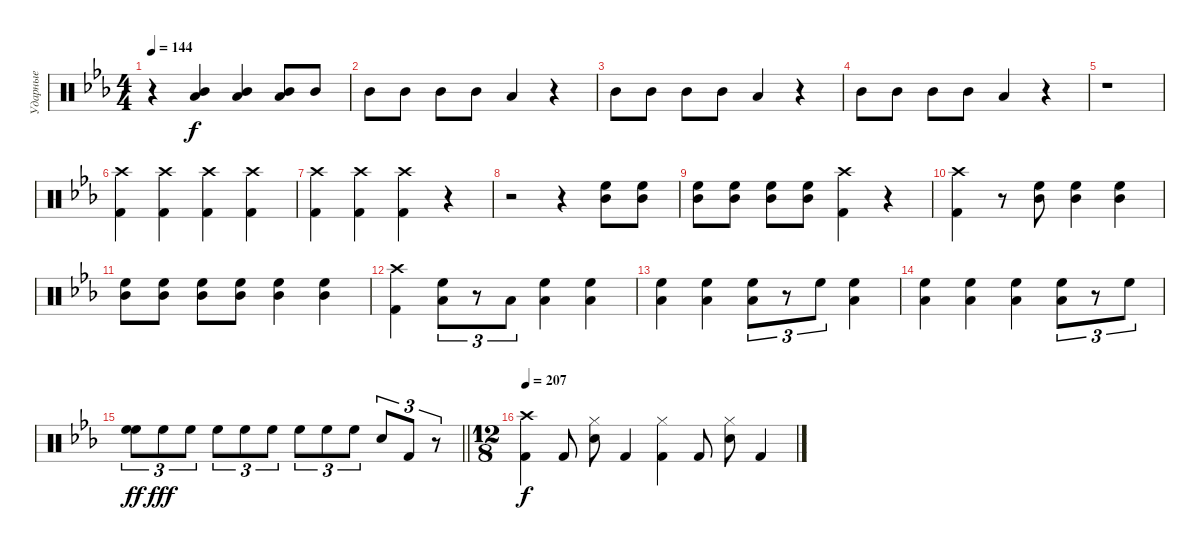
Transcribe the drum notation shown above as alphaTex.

\track ("Ударные" "Ударные") {instrument percussion}
\staff {score}
\articulation defaults
\ts (4 4)
\tempo 144
\clef neutral
\ks eb
r.4{dy f} ("Mid Tom (hit)" "Low Tom (hit)").4 ("Mid Tom (hit)" "Low Tom (hit)").4 ("Mid Tom (hit)" "Low Tom (hit)").8 "Mid Tom (hit)".8 |
"Mid Tom (hit)".8 "Mid Tom (hit)".8 "Mid Tom (hit)".8 "Mid Tom (hit)".8 "Low Tom (hit)".4 r.4 |
"Mid Tom (hit)".8 "Mid Tom (hit)".8 "Mid Tom (hit)".8 "Mid Tom (hit)".8 "Low Tom (hit)".4 r.4 |
"Mid Tom (hit)".8 "Mid Tom (hit)".8 "Mid Tom (hit)".8 "Mid Tom (hit)".8 "Low Tom (hit)".4 r.4 |
r.1 |
("Crash high (hit)" "Kick (hit) 2").4 ("Crash high (hit)" "Kick (hit) 2").4 ("Crash high (hit)" "Kick (hit) 2").4 ("Crash high (hit)" "Kick (hit) 2").4 |
("Crash high (hit)" "Kick (hit) 2").4 ("Crash high (hit)" "Kick (hit) 2").4 ("Crash high (hit)" "Kick (hit) 2").4 r.4 |
r.2 r.4 ("High Floor Tom (hit)" "Mid Tom (hit)").8 ("High Floor Tom (hit)" "Mid Tom (hit)").8 |
("High Floor Tom (hit)" "Mid Tom (hit)").8 ("High Floor Tom (hit)" "Mid Tom (hit)").8 ("High Floor Tom (hit)" "Mid Tom (hit)").8 ("High Floor Tom (hit)" "Mid Tom (hit)").8 ("Crash high (hit)" "Kick (hit) 2").4 r.4 |
("Crash high (hit)" "Kick (hit) 2").4 r.8 ("High Floor Tom (hit)" "Mid Tom (hit)").8 ("High Floor Tom (hit)" "Mid Tom (hit)").4 ("High Floor Tom (hit)" "Mid Tom (hit)").4 |
("High Floor Tom (hit)" "Mid Tom (hit)").8 ("High Floor Tom (hit)" "Mid Tom (hit)").8 ("High Floor Tom (hit)" "Mid Tom (hit)").8 ("High Floor Tom (hit)" "Mid Tom (hit)").8 ("High Floor Tom (hit)" "Mid Tom (hit)").4 ("High Floor Tom (hit)" "Mid Tom (hit)").4 |
("Crash high (hit)" "Kick (hit) 2").4 ("High Floor Tom (hit)" "Low Tom (hit)").8{tu (3 2)} r.8{tu (3 2)} "Low Tom (hit)".8{tu (3 2)} ("High Floor Tom (hit)" "Low Tom (hit)").4 ("High Floor Tom (hit)" "Low Tom (hit)").4 |
("High Floor Tom (hit)" "Low Tom (hit)").4 ("High Floor Tom (hit)" "Low Tom (hit)").4 ("High Floor Tom (hit)" "Low Tom (hit)").8{tu (3 2)} r.8{tu (3 2)} "High Floor Tom (hit)".8{tu (3 2)} ("High Floor Tom (hit)" "Low Tom (hit)").4 |
("High Floor Tom (hit)" "Low Tom (hit)").4 ("High Floor Tom (hit)" "Low Tom (hit)").4 ("High Floor Tom (hit)" "Low Tom (hit)").4 ("High Floor Tom (hit)" "Low Tom (hit)").8{tu (3 2)} r.8{tu (3 2)} "High Floor Tom (hit)".8{tu (3 2)} |
\barLineRight lightlight
("High Floor Tom (hit)" "High Floor Tom (hit)").8{tu (3 2) dy ff} "High Floor Tom (hit)".8{tu (3 2) dy fff} "High Floor Tom (hit)".8{tu (3 2)} "High Floor Tom (hit)".8{tu (3 2)} "High Floor Tom (hit)".8{tu (3 2)} "High Floor Tom (hit)".8{tu (3 2)} "High Floor Tom (hit)".8{tu (3 2)} "High Floor Tom (hit)".8{tu (3 2)} "High Floor Tom (hit)".8{tu (3 2)} "Snare (hit) 2".8{tu (3 2)} "Kick (hit) 2".8{tu (3 2)} r.8{tu (3 2)} |
\ts (12 8)
\tempo 207
("Crash high (hit)" "Kick (hit) 2").4{dy f} "Kick (hit) 2".8 ("Hi-Hat (closed)" "Snare (hit) 2").8 "Kick (hit) 2".4 ("Hi-Hat (closed)" "Kick (hit) 2").4 "Kick (hit) 2".8 ("Hi-Hat (closed)" "Snare (hit) 2").8 "Kick (hit) 2".4
